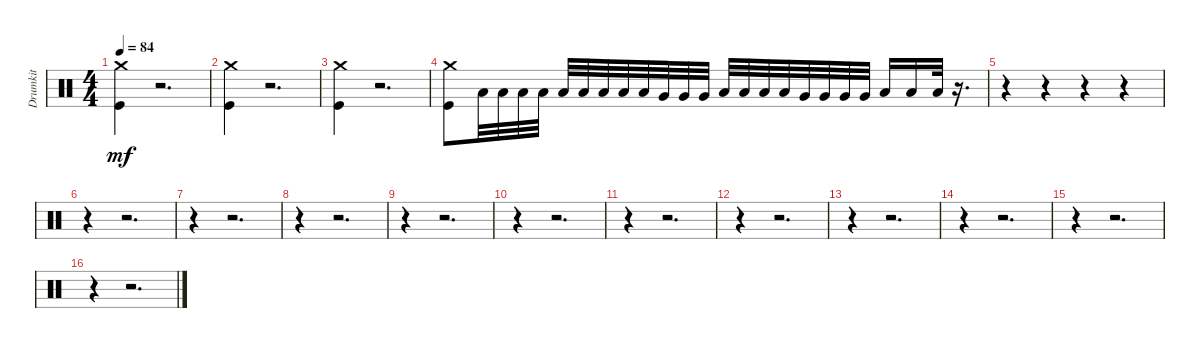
\track ("Drumkit" "Drumkit") {instrument percussion}
\staff {score}
\articulation defaults
\ts (4 4)
\tempo 84
\clef neutral
\ks c
("Kick (hit)" "Crash medium (hit)").4{dy mf} r.2{d} |
("Kick (hit)" "Crash medium (hit)").4 r.2{d} |
("Kick (hit)" "Crash medium (hit)").4 r.2{d} |
("Kick (hit)" "Crash medium (hit)").8 "Low Tom (hit)".32 "Low Tom (hit)".32 "Low Tom (hit)".32 "Low Tom (hit)".32 "Low Floor Tom (hit)".32 "Low Floor Tom (hit)".32 "Low Floor Tom (hit)".32 "Low Floor Tom (hit)".32 "Low Floor Tom (hit)".32 "Very Low Tom (hit)".32 "Very Low Tom (hit)".32 "Very Low Tom (hit)".32 "Low Floor Tom (hit)".32 "Low Floor Tom (hit)".32 "Low Floor Tom (hit)".32 "Low Floor Tom (hit)".32 "Very Low Tom (hit)".32 "Very Low Tom (hit)".32 "Very Low Tom (hit)".32 "Very Low Tom (hit)".32 "Low Floor Tom (hit)".16 "Low Floor Tom (hit)".16 "Low Floor Tom (hit)".32 r.16{d} |
r.4 r.4 r.4 r.4 |
r.4 r.2{d} |
r.4 r.2{d} |
r.4 r.2{d} |
r.4 r.2{d} |
r.4 r.2{d} |
r.4 r.2{d} |
r.4 r.2{d} |
r.4 r.2{d} |
r.4 r.2{d} |
r.4 r.2{d} |
r.4 r.2{d}
